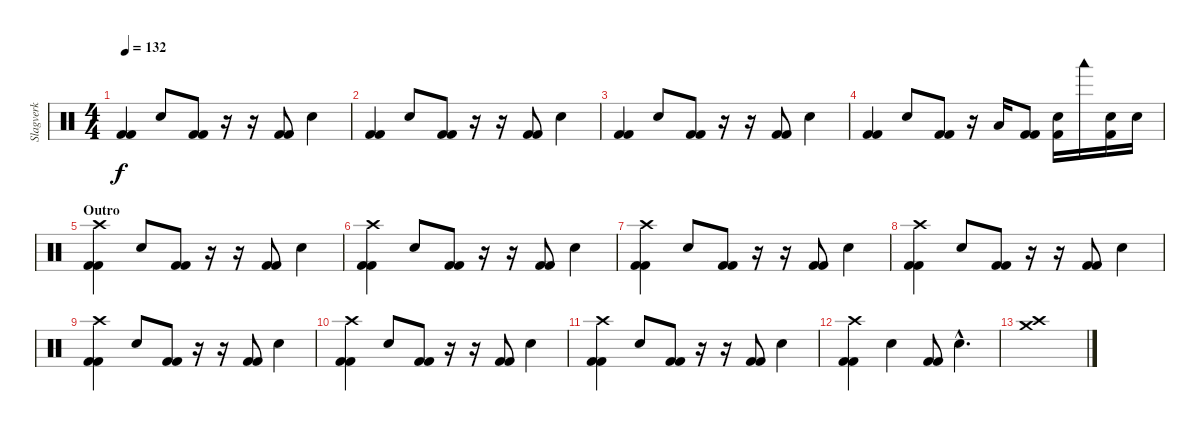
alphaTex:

\track ("Slagverk" "Slagverk") {instrument percussion}
\staff {score}
\articulation defaults
\ts (4 4)
\tempo 132
\clef neutral
\ks c
("Kick (hit) 2" "Kick (hit) 2").4{dy f} "Electric Snare (hit)".8 ("Kick (hit) 2" "Kick (hit) 2").8 r.16 r.16 ("Kick (hit) 2" "Kick (hit) 2").8 "Electric Snare (hit)".4 |
("Kick (hit) 2" "Kick (hit) 2").4 "Electric Snare (hit)".8 ("Kick (hit) 2" "Kick (hit) 2").8 r.16 r.16 ("Kick (hit) 2" "Kick (hit) 2").8 "Electric Snare (hit)".4 |
("Kick (hit) 2" "Kick (hit) 2").4 "Electric Snare (hit)".8 ("Kick (hit) 2" "Kick (hit) 2").8 r.16 r.16 ("Kick (hit) 2" "Kick (hit) 2").8 "Electric Snare (hit)".4 |
("Kick (hit) 2" "Kick (hit) 2").4 "Electric Snare (hit)".8 ("Kick (hit) 2" "Kick (hit) 2").8 r.16 "Low Tom (hit)".16 ("Kick (hit) 2" "Kick (hit) 2").8 ("Electric Snare (hit)" "Kick (hit) 2").16 "Woodblock low (hit)".16 ("Electric Snare (hit)" "Kick (hit) 2").16 "Electric Snare (hit)".16 |
\section ("" "Outro")
("Kick (hit) 2" "Kick (hit) 2" "Crash high (hit)").4 "Electric Snare (hit)".8 ("Kick (hit) 2" "Kick (hit) 2").8 r.16 r.16 ("Kick (hit) 2" "Kick (hit) 2").8 "Electric Snare (hit)".4 |
("Kick (hit) 2" "Kick (hit) 2" "Crash high (hit)").4 "Electric Snare (hit)".8 ("Kick (hit) 2" "Kick (hit) 2").8 r.16 r.16 ("Kick (hit) 2" "Kick (hit) 2").8 "Electric Snare (hit)".4 |
("Kick (hit) 2" "Kick (hit) 2" "Crash high (hit)").4 "Electric Snare (hit)".8 ("Kick (hit) 2" "Kick (hit) 2").8 r.16 r.16 ("Kick (hit) 2" "Kick (hit) 2").8 "Electric Snare (hit)".4 |
("Kick (hit) 2" "Kick (hit) 2" "Crash high (hit)").4 "Electric Snare (hit)".8 ("Kick (hit) 2" "Kick (hit) 2").8 r.16 r.16 ("Kick (hit) 2" "Kick (hit) 2").8 "Electric Snare (hit)".4 |
("Kick (hit) 2" "Kick (hit) 2" "Crash high (hit)").4 "Electric Snare (hit)".8 ("Kick (hit) 2" "Kick (hit) 2").8 r.16 r.16 ("Kick (hit) 2" "Kick (hit) 2").8 "Electric Snare (hit)".4 |
("Kick (hit) 2" "Kick (hit) 2" "Crash high (hit)").4 "Electric Snare (hit)".8 ("Kick (hit) 2" "Kick (hit) 2").8 r.16 r.16 ("Kick (hit) 2" "Kick (hit) 2").8 "Electric Snare (hit)".4 |
("Kick (hit) 2" "Kick (hit) 2" "Crash high (hit)").4 "Electric Snare (hit)".8 ("Kick (hit) 2" "Kick (hit) 2").8 r.16 r.16 ("Kick (hit) 2" "Kick (hit) 2").8 "Electric Snare (hit)".4 |
("Kick (hit) 2" "Kick (hit) 2" "Crash high (hit)").4 "Electric Snare (hit)".4 ("Kick (hit) 2" "Kick (hit) 2").8 "Electric Snare (hit)"{hac}.4{d} |
("Crash high (hit)" "Crash medium (hit)").1
